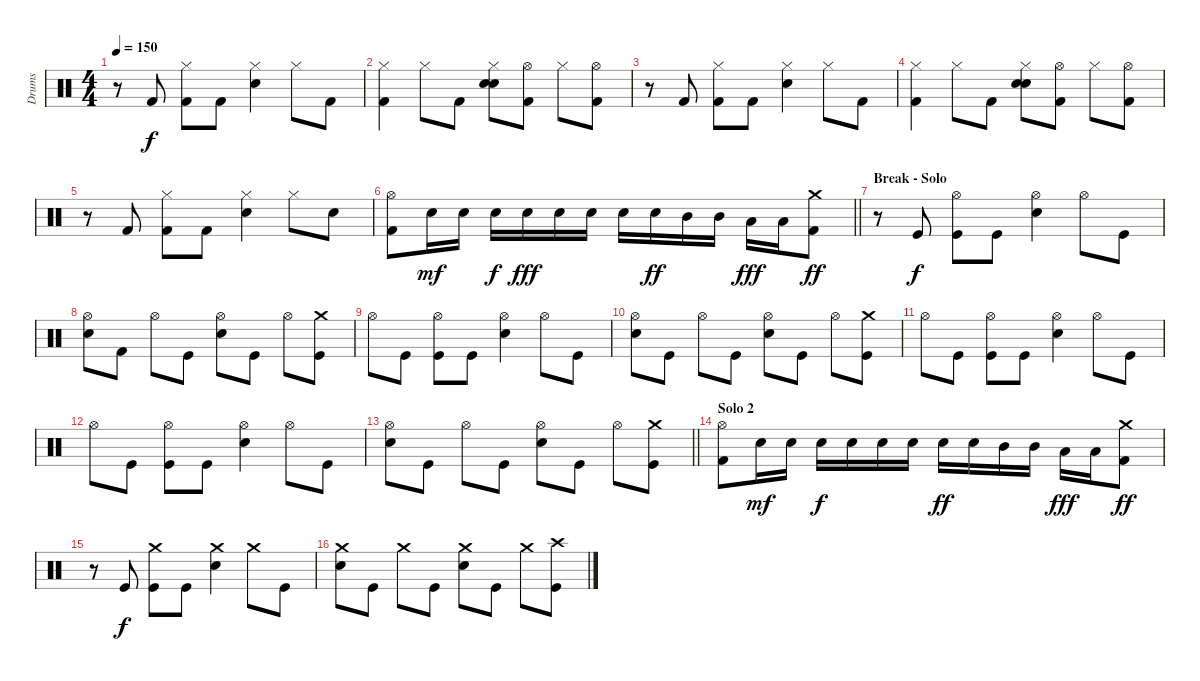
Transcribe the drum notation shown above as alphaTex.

\track ("Drums" "Drums") {instrument percussion}
\staff {score}
\articulation defaults
\ts (4 4)
\tempo 150
\clef neutral
\ks c
r.8{dy f} "Kick (hit) 2".8 ("Hi-Hat (closed)" "Kick (hit) 2").8 "Kick (hit) 2".8 ("Hi-Hat (closed)" "Electric Snare (hit)").4 "Hi-Hat (closed)".8 "Kick (hit) 2".8 |
("Hi-Hat (closed)" "Kick (hit) 2").4 "Hi-Hat (closed)".8 "Kick (hit) 2".8 ("Hi-Hat (closed)" "Electric Snare (hit)" "Electric Snare (hit)").8{bd 480} ("Hi-Hat (open)" "Kick (hit) 2").8 "Hi-Hat (closed)".8 ("Hi-Hat (open)" "Kick (hit) 2").8 |
r.8 "Kick (hit) 2".8 ("Hi-Hat (closed)" "Kick (hit) 2").8 "Kick (hit) 2".8 ("Hi-Hat (closed)" "Electric Snare (hit)").4 "Hi-Hat (closed)".8 "Kick (hit) 2".8 |
("Hi-Hat (closed)" "Kick (hit) 2").4 "Hi-Hat (closed)".8 "Kick (hit) 2".8 ("Hi-Hat (closed)" "Electric Snare (hit)" "Electric Snare (hit)").8{bd 480} ("Hi-Hat (open)" "Kick (hit) 2").8 "Hi-Hat (closed)".8 ("Hi-Hat (open)" "Kick (hit) 2").8 |
r.8 "Kick (hit) 2".8 ("Hi-Hat (closed)" "Kick (hit) 2").8 "Kick (hit) 2".8 ("Hi-Hat (closed)" "Electric Snare (hit)").4 "Hi-Hat (closed)".8 "Electric Snare (hit)".8 |
\barLineRight lightlight
("Hi-Hat (open)" "Kick (hit) 2").8 "Electric Snare (hit)".16{dy mf} "Electric Snare (hit)".16 "Electric Snare (hit)".16{dy f} "Electric Snare (hit)".16{dy fff} "Electric Snare (hit)".16 "Electric Snare (hit)".16 "Electric Snare (hit)".16 "Electric Snare (hit)".16{dy ff} "Mid Tom (hit)".16 "Mid Tom (hit)".16 "Low Tom (hit)".16{dy fff} "Low Tom (hit)".16 ("Crash medium (hit)" "Kick (hit) 2").8{dy ff} |
\section ("" "Break - Solo")
r.8 "Kick (hit)".8{dy f} ("Hi-Hat (open)" "Kick (hit)").8 "Kick (hit)".8 ("Hi-Hat (open)" "Electric Snare (hit)").4 "Hi-Hat (open)".8 "Kick (hit)".8 |
("Hi-Hat (open)" "Electric Snare (hit)").8 "Kick (hit) 2".8 "Hi-Hat (open)".8 "Kick (hit)".8 ("Hi-Hat (open)" "Electric Snare (hit)").8 "Kick (hit)".8 "Hi-Hat (open)".8 ("Crash medium (hit)" "Kick (hit)").8 |
"Hi-Hat (open)".8 "Kick (hit)".8 ("Hi-Hat (open)" "Kick (hit)").8 "Kick (hit)".8 ("Hi-Hat (open)" "Electric Snare (hit)").4 "Hi-Hat (open)".8 "Kick (hit)".8 |
("Hi-Hat (open)" "Electric Snare (hit)").8 "Kick (hit)".8 "Hi-Hat (open)".8 "Kick (hit)".8 ("Hi-Hat (open)" "Electric Snare (hit)").8 "Kick (hit)".8 "Hi-Hat (open)".8 ("Crash medium (hit)" "Kick (hit)").8 |
"Hi-Hat (open)".8 "Kick (hit)".8 ("Hi-Hat (open)" "Kick (hit)").8 "Kick (hit)".8 ("Hi-Hat (open)" "Electric Snare (hit)").4 "Hi-Hat (open)".8 "Kick (hit)".8 |
"Hi-Hat (open)".8 "Kick (hit)".8 ("Hi-Hat (open)" "Kick (hit)").8 "Kick (hit)".8 ("Hi-Hat (open)" "Electric Snare (hit)").4 "Hi-Hat (open)".8 "Kick (hit)".8 |
\barLineRight lightlight
("Hi-Hat (open)" "Electric Snare (hit)").8 "Kick (hit)".8 "Hi-Hat (open)".8 "Kick (hit)".8 ("Hi-Hat (open)" "Electric Snare (hit)").8 "Kick (hit)".8 "Hi-Hat (open)".8 ("Crash medium (hit)" "Kick (hit)").8 |
\section ("" "Solo 2")
("Hi-Hat (open)" "Kick (hit) 2").8 "Electric Snare (hit)".16{dy mf} "Electric Snare (hit)".16 "Electric Snare (hit)".16{dy f} "Electric Snare (hit)".16 "Electric Snare (hit)".16 "Electric Snare (hit)".16 "Electric Snare (hit)".16{dy ff} "Electric Snare (hit)".16 "Mid Tom (hit)".16 "Mid Tom (hit)".16 "Low Tom (hit)".16{dy fff} "Low Tom (hit)".16 ("Crash medium (hit)" "Kick (hit) 2").8{dy ff} |
r.8 "Kick (hit)".8{dy f} ("Crash medium (hit)" "Kick (hit)").8 "Kick (hit)".8 ("Crash medium (hit)" "Electric Snare (hit)").4 "Crash medium (hit)".8 "Kick (hit)".8 |
("Crash medium (hit)" "Electric Snare (hit)").8 "Kick (hit)".8 "Crash medium (hit)".8 "Kick (hit)".8 ("Crash medium (hit)" "Electric Snare (hit)").8 "Kick (hit)".8 "Crash medium (hit)".8 ("Crash high (hit)" "Kick (hit)").8
